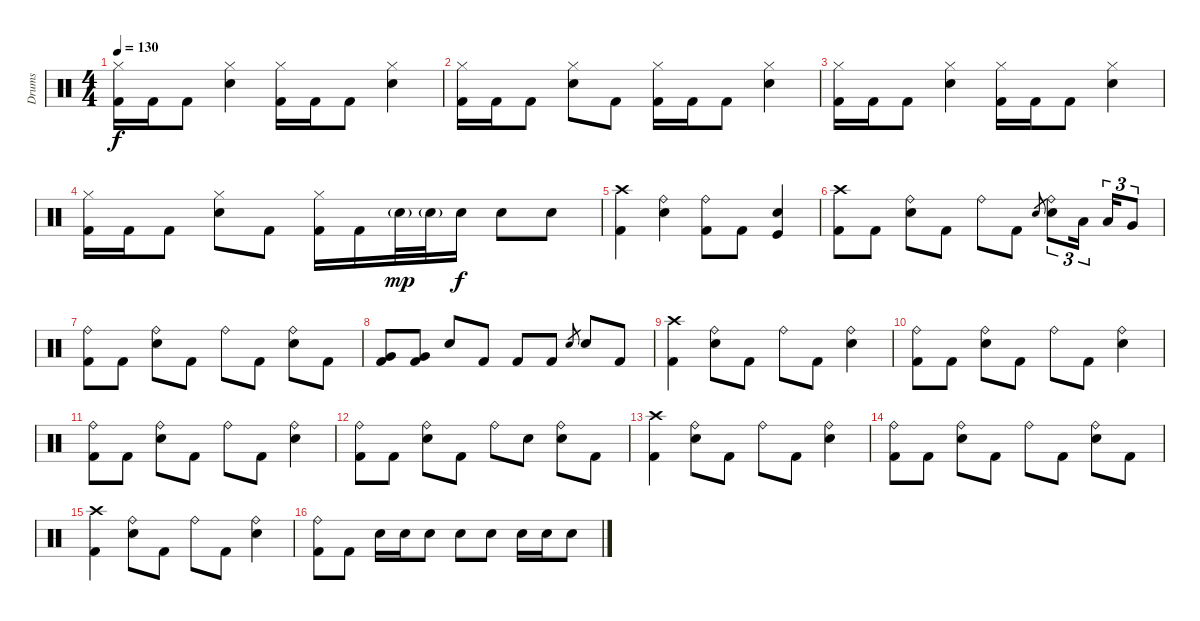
\track ("Drums" "Drums") {instrument percussion}
\staff {score}
\articulation defaults
\ts (4 4)
\tempo 130
\clef neutral
\ks c
("Hi-Hat (closed)" "Kick (hit) 2").16{dy f} "Kick (hit) 2".16 "Kick (hit) 2".8 ("Hi-Hat (closed)" "Electric Snare (hit)").4 ("Hi-Hat (closed)" "Kick (hit) 2").16 "Kick (hit) 2".16 "Kick (hit) 2".8 ("Hi-Hat (closed)" "Electric Snare (hit)").4 |
("Hi-Hat (closed)" "Kick (hit) 2").16 "Kick (hit) 2".16 "Kick (hit) 2".8 ("Hi-Hat (closed)" "Electric Snare (hit)").8 "Kick (hit) 2".8 ("Hi-Hat (closed)" "Kick (hit) 2").16 "Kick (hit) 2".16 "Kick (hit) 2".8 ("Hi-Hat (closed)" "Electric Snare (hit)").4 |
("Hi-Hat (closed)" "Kick (hit) 2").16 "Kick (hit) 2".16 "Kick (hit) 2".8 ("Hi-Hat (closed)" "Electric Snare (hit)").4 ("Hi-Hat (closed)" "Kick (hit) 2").16 "Kick (hit) 2".16 "Kick (hit) 2".8 ("Hi-Hat (closed)" "Electric Snare (hit)").4 |
("Hi-Hat (closed)" "Kick (hit) 2").16 "Kick (hit) 2".16 "Kick (hit) 2".8 ("Hi-Hat (closed)" "Electric Snare (hit)").8 "Kick (hit) 2".8 ("Hi-Hat (closed)" "Kick (hit) 2").16 "Kick (hit) 2".16 "Electric Snare (hit)"{g}.32{dy mp} "Electric Snare (hit)"{g}.32 "Electric Snare (hit)".16{dy f} "Electric Snare (hit)".8 "Electric Snare (hit)".8 |
("Crash high (hit)" "Kick (hit) 2").4 ("Ride (bell)" "Electric Snare (hit)").4 ("Ride (bell)" "Kick (hit) 2").8 "Kick (hit) 2".8 ("Kick (hit)" "Electric Snare (hit)").4 |
("Crash high (hit)" "Kick (hit) 2").8 "Kick (hit) 2".8 ("Ride (bell)" "Electric Snare (hit)").8 "Kick (hit) 2".8 "Ride (bell)".8 "Kick (hit) 2".8 "Electric Snare (hit)".8{gr} ("Ride (bell)" "Electric Snare (hit)").8{tu (3 2)} "Low Tom (hit)".16{tu (3 2)} "Low Tom (hit)".16{tu (3 2)} "Very Low Tom (hit)".8{tu (3 2)} |
("Ride (bell)" "Kick (hit) 2").8 "Kick (hit) 2".8 ("Ride (bell)" "Electric Snare (hit)").8 "Kick (hit) 2".8 "Ride (bell)".8 "Kick (hit) 2".8 ("Ride (bell)" "Electric Snare (hit)").8 "Kick (hit) 2".8 |
("Very Low Tom (hit)" "Kick (hit) 2").8 ("Very Low Tom (hit)" "Kick (hit) 2").8 "Electric Snare (hit)".8 "Kick (hit) 2".8 "Kick (hit) 2".8 "Kick (hit) 2".8 "Electric Snare (hit)".8{gr} "Electric Snare (hit)".8 "Kick (hit) 2".8 |
("Crash high (hit)" "Kick (hit) 2").4 ("Ride (bell)" "Electric Snare (hit)").8 "Kick (hit) 2".8 "Ride (bell)".8 "Kick (hit) 2".8 ("Ride (bell)" "Electric Snare (hit)").4 |
("Ride (bell)" "Kick (hit) 2").8 "Kick (hit) 2".8 ("Ride (bell)" "Electric Snare (hit)").8 "Kick (hit) 2".8 "Ride (bell)".8 "Kick (hit) 2".8 ("Ride (bell)" "Electric Snare (hit)").4 |
("Ride (bell)" "Kick (hit) 2").8 "Kick (hit) 2".8 ("Ride (bell)" "Electric Snare (hit)").8 "Kick (hit) 2".8 "Ride (bell)".8 "Kick (hit) 2".8 ("Ride (bell)" "Electric Snare (hit)").4 |
("Ride (bell)" "Kick (hit) 2").8 "Kick (hit) 2".8 ("Ride (bell)" "Electric Snare (hit)").8 "Kick (hit) 2".8 "Ride (bell)".8 "Electric Snare (hit)".8 ("Ride (bell)" "Electric Snare (hit)").8 "Kick (hit) 2".8 |
("Crash high (hit)" "Kick (hit) 2").4 ("Ride (bell)" "Electric Snare (hit)").8 "Kick (hit) 2".8 "Ride (bell)".8 "Kick (hit) 2".8 ("Ride (bell)" "Electric Snare (hit)").4 |
("Ride (bell)" "Kick (hit) 2").8 "Kick (hit) 2".8 ("Ride (bell)" "Electric Snare (hit)").8 "Kick (hit) 2".8 "Ride (bell)".8 "Kick (hit) 2".8 ("Ride (bell)" "Electric Snare (hit)").8 "Kick (hit) 2".8 |
("Crash high (hit)" "Kick (hit) 2").4 ("Ride (bell)" "Electric Snare (hit)").8 "Kick (hit) 2".8 "Ride (bell)".8 "Kick (hit) 2".8 ("Ride (bell)" "Electric Snare (hit)").4 |
("Ride (bell)" "Kick (hit) 2").8 "Kick (hit) 2".8 "Electric Snare (hit)".16 "Electric Snare (hit)".16 "Electric Snare (hit)".8 "Electric Snare (hit)".8 "Electric Snare (hit)".8 "Electric Snare (hit)".16 "Electric Snare (hit)".16 "Electric Snare (hit)".8
